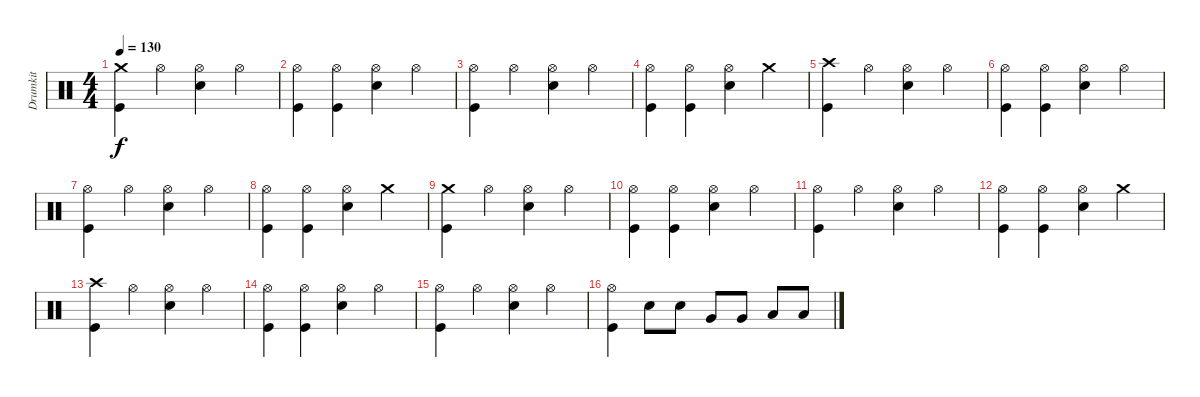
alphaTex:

\track ("Drumkit" "Drumkit") {instrument percussion}
\staff {score}
\articulation defaults
\ts (4 4)
\tempo 130
\clef neutral
\ks c
("Crash medium (hit)" "Kick (hit)").4{dy f} "Hi-Hat (open)".4 ("Hi-Hat (open)" "Snare (hit) 2").4 "Hi-Hat (open)".4 |
("Hi-Hat (open)" "Kick (hit)").4 ("Hi-Hat (open)" "Kick (hit)").4 ("Hi-Hat (open)" "Snare (hit) 2").4 "Hi-Hat (open)".4 |
("Hi-Hat (open)" "Kick (hit)").4 "Hi-Hat (open)".4 ("Hi-Hat (open)" "Snare (hit) 2").4 "Hi-Hat (open)".4 |
("Hi-Hat (open)" "Kick (hit)").4 ("Hi-Hat (open)" "Kick (hit)").4 ("Hi-Hat (open)" "Snare (hit) 2").4 "Crash medium (hit)".4 |
("Crash high (hit)" "Kick (hit)").4 "Hi-Hat (open)".4 ("Hi-Hat (open)" "Snare (hit) 2").4 "Hi-Hat (open)".4 |
("Hi-Hat (open)" "Kick (hit)").4 ("Hi-Hat (open)" "Kick (hit)").4 ("Hi-Hat (open)" "Snare (hit) 2").4 "Hi-Hat (open)".4 |
("Hi-Hat (open)" "Kick (hit)").4 "Hi-Hat (open)".4 ("Hi-Hat (open)" "Snare (hit) 2").4 "Hi-Hat (open)".4 |
("Hi-Hat (open)" "Kick (hit)").4 ("Hi-Hat (open)" "Kick (hit)").4 ("Hi-Hat (open)" "Snare (hit) 2").4 "Crash medium (hit)".4 |
("Crash medium (hit)" "Kick (hit)").4 "Hi-Hat (open)".4 ("Hi-Hat (open)" "Snare (hit) 2").4 "Hi-Hat (open)".4 |
("Hi-Hat (open)" "Kick (hit)").4 ("Hi-Hat (open)" "Kick (hit)").4 ("Hi-Hat (open)" "Snare (hit) 2").4 "Hi-Hat (open)".4 |
("Hi-Hat (open)" "Kick (hit)").4 "Hi-Hat (open)".4 ("Hi-Hat (open)" "Snare (hit) 2").4 "Hi-Hat (open)".4 |
("Hi-Hat (open)" "Kick (hit)").4 ("Hi-Hat (open)" "Kick (hit)").4 ("Hi-Hat (open)" "Snare (hit) 2").4 "Crash medium (hit)".4 |
("Crash high (hit)" "Kick (hit)").4 "Hi-Hat (open)".4 ("Hi-Hat (open)" "Snare (hit) 2").4 "Hi-Hat (open)".4 |
("Hi-Hat (open)" "Kick (hit)").4 ("Hi-Hat (open)" "Kick (hit)").4 ("Hi-Hat (open)" "Snare (hit) 2").4 "Hi-Hat (open)".4 |
("Hi-Hat (open)" "Kick (hit)").4 "Hi-Hat (open)".4 ("Hi-Hat (open)" "Snare (hit) 2").4 "Hi-Hat (open)".4 |
("Hi-Hat (open)" "Kick (hit)").4 "Snare (hit) 2".8 "Snare (hit) 2".8 "Very Low Tom (hit)".8 "Very Low Tom (hit)".8 "Low Tom (hit)".8 "Low Tom (hit)".8
